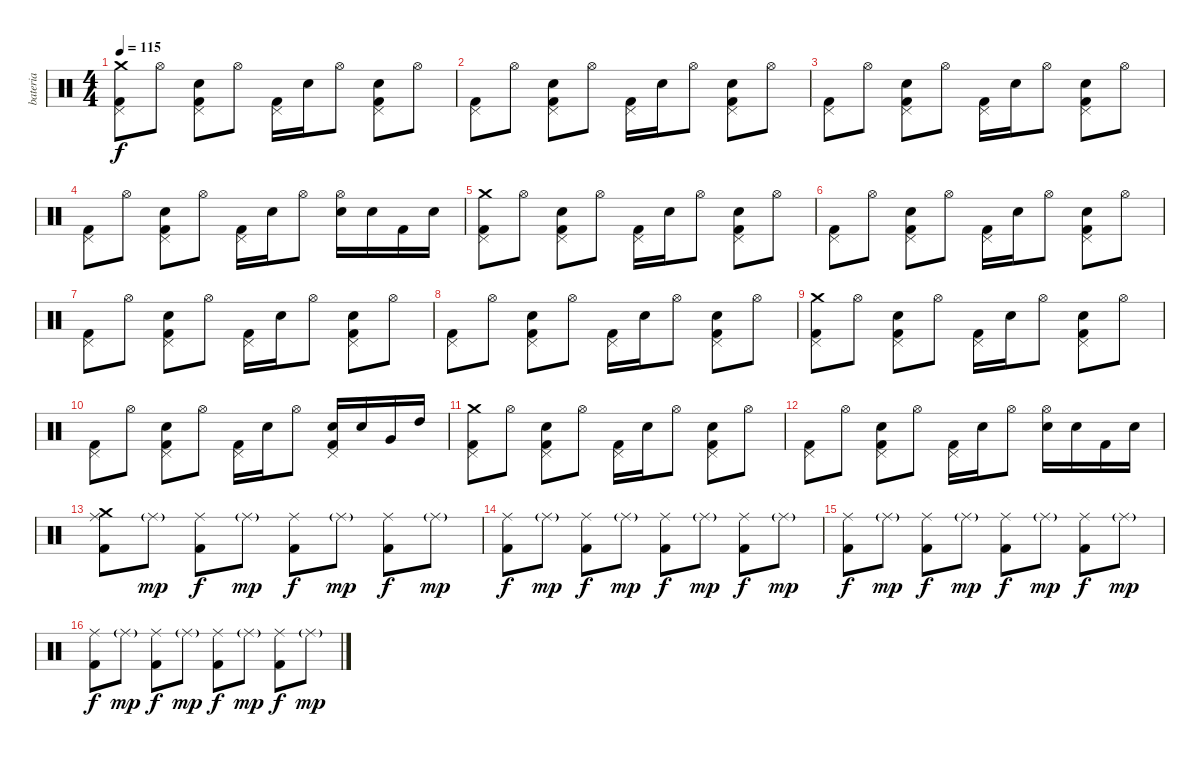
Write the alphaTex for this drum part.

\track ("bateria" "bateria") {instrument percussion}
\staff {score}
\articulation defaults
\ts (4 4)
\tempo 115
\clef neutral
\ks c
("Crash medium (hit)" "Pedal Hi-Hat (hit)" "Kick (hit) 2").8{dy f} "Hi-Hat (open)".8 ("Pedal Hi-Hat (hit)" "Snare (hit) 2" "Kick (hit) 2").8 "Hi-Hat (open)".8 ("Pedal Hi-Hat (hit)" "Kick (hit) 2").16 "Snare (hit) 2".16 "Hi-Hat (open)".8 ("Pedal Hi-Hat (hit)" "Snare (hit) 2" "Kick (hit) 2").8 "Hi-Hat (open)".8 |
("Pedal Hi-Hat (hit)" "Kick (hit) 2").8 "Hi-Hat (open)".8 ("Pedal Hi-Hat (hit)" "Snare (hit) 2" "Kick (hit) 2").8 "Hi-Hat (open)".8 ("Pedal Hi-Hat (hit)" "Kick (hit) 2").16 "Snare (hit) 2".16 "Hi-Hat (open)".8 ("Pedal Hi-Hat (hit)" "Snare (hit) 2" "Kick (hit) 2").8 "Hi-Hat (open)".8 |
("Pedal Hi-Hat (hit)" "Kick (hit) 2").8 "Hi-Hat (open)".8 ("Pedal Hi-Hat (hit)" "Snare (hit) 2" "Kick (hit) 2").8 "Hi-Hat (open)".8 ("Pedal Hi-Hat (hit)" "Kick (hit) 2").16 "Snare (hit) 2".16 "Hi-Hat (open)".8 ("Pedal Hi-Hat (hit)" "Snare (hit) 2" "Kick (hit) 2").8 "Hi-Hat (open)".8 |
("Pedal Hi-Hat (hit)" "Kick (hit) 2").8 "Hi-Hat (open)".8 ("Pedal Hi-Hat (hit)" "Snare (hit) 2" "Kick (hit) 2").8 "Hi-Hat (open)".8 ("Pedal Hi-Hat (hit)" "Kick (hit) 2").16 "Snare (hit) 2".16 "Hi-Hat (open)".8 ("Hi-Hat (open)" "Snare (hit) 2").16 "Snare (hit) 2".16 "Kick (hit) 2".16 "Snare (hit) 2".16 |
("Crash medium (hit)" "Pedal Hi-Hat (hit)" "Kick (hit) 2").8 "Hi-Hat (open)".8 ("Pedal Hi-Hat (hit)" "Snare (hit) 2" "Kick (hit) 2").8 "Hi-Hat (open)".8 ("Pedal Hi-Hat (hit)" "Kick (hit) 2").16 "Snare (hit) 2".16 "Hi-Hat (open)".8 ("Pedal Hi-Hat (hit)" "Snare (hit) 2" "Kick (hit) 2").8 "Hi-Hat (open)".8 |
("Pedal Hi-Hat (hit)" "Kick (hit) 2").8 "Hi-Hat (open)".8 ("Pedal Hi-Hat (hit)" "Snare (hit) 2" "Kick (hit) 2").8 "Hi-Hat (open)".8 ("Pedal Hi-Hat (hit)" "Kick (hit) 2").16 "Snare (hit) 2".16 "Hi-Hat (open)".8 ("Pedal Hi-Hat (hit)" "Snare (hit) 2" "Kick (hit) 2").8 "Hi-Hat (open)".8 |
("Pedal Hi-Hat (hit)" "Kick (hit) 2").8 "Hi-Hat (open)".8 ("Pedal Hi-Hat (hit)" "Snare (hit) 2" "Kick (hit) 2").8 "Hi-Hat (open)".8 ("Pedal Hi-Hat (hit)" "Kick (hit) 2").16 "Snare (hit) 2".16 "Hi-Hat (open)".8 ("Pedal Hi-Hat (hit)" "Snare (hit) 2" "Kick (hit) 2").8 "Hi-Hat (open)".8 |
("Pedal Hi-Hat (hit)" "Kick (hit) 2").8 "Hi-Hat (open)".8 ("Pedal Hi-Hat (hit)" "Snare (hit) 2" "Kick (hit) 2").8 "Hi-Hat (open)".8 ("Pedal Hi-Hat (hit)" "Kick (hit) 2").16 "Snare (hit) 2".16 "Hi-Hat (open)".8 ("Pedal Hi-Hat (hit)" "Snare (hit) 2" "Kick (hit) 2").8 "Hi-Hat (open)".8 |
("Crash medium (hit)" "Pedal Hi-Hat (hit)" "Kick (hit) 2").8 "Hi-Hat (open)".8 ("Pedal Hi-Hat (hit)" "Snare (hit) 2" "Kick (hit) 2").8 "Hi-Hat (open)".8 ("Pedal Hi-Hat (hit)" "Kick (hit) 2").16 "Snare (hit) 2".16 "Hi-Hat (open)".8 ("Pedal Hi-Hat (hit)" "Snare (hit) 2" "Kick (hit) 2").8 "Hi-Hat (open)".8 |
("Pedal Hi-Hat (hit)" "Kick (hit) 2").8 "Hi-Hat (open)".8 ("Pedal Hi-Hat (hit)" "Snare (hit) 2" "Kick (hit) 2").8 "Hi-Hat (open)".8 ("Pedal Hi-Hat (hit)" "Kick (hit) 2").16 "Snare (hit) 2".16 "Hi-Hat (open)".8 ("Pedal Hi-Hat (hit)" "Snare (hit) 2" "Kick (hit) 2").16 "Snare (hit) 2".16 "Very Low Tom (hit)".16 "High Tom (hit)".16 |
("Crash medium (hit)" "Pedal Hi-Hat (hit)" "Kick (hit) 2").8 "Hi-Hat (open)".8 ("Pedal Hi-Hat (hit)" "Snare (hit) 2" "Kick (hit) 2").8 "Hi-Hat (open)".8 ("Pedal Hi-Hat (hit)" "Kick (hit) 2").16 "Snare (hit) 2".16 "Hi-Hat (open)".8 ("Pedal Hi-Hat (hit)" "Snare (hit) 2" "Kick (hit) 2").8 "Hi-Hat (open)".8 |
("Pedal Hi-Hat (hit)" "Kick (hit) 2").8 "Hi-Hat (open)".8 ("Pedal Hi-Hat (hit)" "Snare (hit) 2" "Kick (hit) 2").8 "Hi-Hat (open)".8 ("Pedal Hi-Hat (hit)" "Kick (hit) 2").16 "Snare (hit) 2".16 "Hi-Hat (open)".8 ("Hi-Hat (open)" "Snare (hit) 2").16 "Snare (hit) 2".16 "Kick (hit) 2".16 "Snare (hit) 2".16 |
("Crash medium (hit)" "Ride (middle)" "Kick (hit) 2").8 "Ride (middle)"{g}.8{dy mp} ("Ride (middle)" "Kick (hit) 2").8{dy f} "Ride (middle)"{g}.8{dy mp} ("Ride (middle)" "Kick (hit) 2").8{dy f} "Ride (middle)"{g}.8{dy mp} ("Ride (middle)" "Kick (hit) 2").8{dy f} "Ride (middle)"{g}.8{dy mp} |
("Ride (middle)" "Kick (hit) 2").8{dy f} "Ride (middle)"{g}.8{dy mp} ("Ride (middle)" "Kick (hit) 2").8{dy f} "Ride (middle)"{g}.8{dy mp} ("Ride (middle)" "Kick (hit) 2").8{dy f} "Ride (middle)"{g}.8{dy mp} ("Ride (middle)" "Kick (hit) 2").8{dy f} "Ride (middle)"{g}.8{dy mp} |
("Ride (middle)" "Kick (hit) 2").8{dy f} "Ride (middle)"{g}.8{dy mp} ("Ride (middle)" "Kick (hit) 2").8{dy f} "Ride (middle)"{g}.8{dy mp} ("Ride (middle)" "Kick (hit) 2").8{dy f} "Ride (middle)"{g}.8{dy mp} ("Ride (middle)" "Kick (hit) 2").8{dy f} "Ride (middle)"{g}.8{dy mp} |
("Ride (middle)" "Kick (hit) 2").8{dy f} "Ride (middle)"{g}.8{dy mp} ("Ride (middle)" "Kick (hit) 2").8{dy f} "Ride (middle)"{g}.8{dy mp} ("Ride (middle)" "Kick (hit) 2").8{dy f} "Ride (middle)"{g}.8{dy mp} ("Ride (middle)" "Kick (hit) 2").8{dy f} "Ride (middle)"{g}.8{dy mp}
